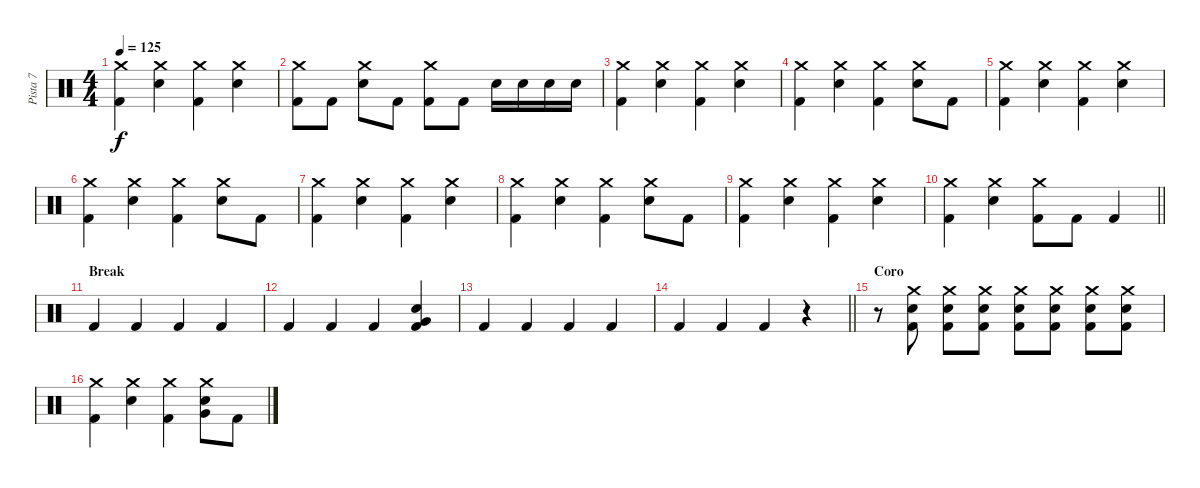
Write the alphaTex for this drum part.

\track ("Pista 7" "Pista 7") {instrument percussion}
\staff {score}
\articulation defaults
\ts (4 4)
\tempo 125
\clef neutral
\ks c
("Crash medium (hit)" "Kick (hit) 2").4{dy f} ("Crash medium (hit)" "Electric Snare (hit)").4 ("Crash medium (hit)" "Kick (hit) 2").4 ("Crash medium (hit)" "Electric Snare (hit)").4 |
("Crash medium (hit)" "Kick (hit) 2").8 "Kick (hit) 2".8 ("Crash medium (hit)" "Electric Snare (hit)").8 "Kick (hit) 2".8 ("Crash medium (hit)" "Kick (hit) 2").8 "Kick (hit) 2".8 "Electric Snare (hit)".16 "Electric Snare (hit)".16 "Electric Snare (hit)".16 "Electric Snare (hit)".16 |
("Crash medium (hit)" "Kick (hit) 2").4 ("Crash medium (hit)" "Electric Snare (hit)").4 ("Crash medium (hit)" "Kick (hit) 2").4 ("Crash medium (hit)" "Electric Snare (hit)").4 |
("Crash medium (hit)" "Kick (hit) 2").4 ("Crash medium (hit)" "Electric Snare (hit)").4 ("Crash medium (hit)" "Kick (hit) 2").4 ("Crash medium (hit)" "Electric Snare (hit)").8 "Kick (hit) 2".8 |
("Crash medium (hit)" "Kick (hit) 2").4 ("Crash medium (hit)" "Electric Snare (hit)").4 ("Crash medium (hit)" "Kick (hit) 2").4 ("Crash medium (hit)" "Electric Snare (hit)").4 |
("Crash medium (hit)" "Kick (hit) 2").4 ("Crash medium (hit)" "Electric Snare (hit)").4 ("Crash medium (hit)" "Kick (hit) 2").4 ("Crash medium (hit)" "Electric Snare (hit)").8 "Kick (hit) 2".8 |
("Crash medium (hit)" "Kick (hit) 2").4 ("Crash medium (hit)" "Electric Snare (hit)").4 ("Crash medium (hit)" "Kick (hit) 2").4 ("Crash medium (hit)" "Electric Snare (hit)").4 |
("Crash medium (hit)" "Kick (hit) 2").4 ("Crash medium (hit)" "Electric Snare (hit)").4 ("Crash medium (hit)" "Kick (hit) 2").4 ("Crash medium (hit)" "Electric Snare (hit)").8 "Kick (hit) 2".8 |
("Crash medium (hit)" "Kick (hit) 2").4 ("Crash medium (hit)" "Electric Snare (hit)").4 ("Crash medium (hit)" "Kick (hit) 2").4 ("Crash medium (hit)" "Electric Snare (hit)").4 |
\barLineRight lightlight
("Crash medium (hit)" "Kick (hit) 2").4 ("Crash medium (hit)" "Electric Snare (hit)").4 ("Crash medium (hit)" "Kick (hit) 2").8 "Kick (hit) 2".8 "Kick (hit) 2".4 |
\section ("" "Break")
"Kick (hit) 2".4 "Kick (hit) 2".4 "Kick (hit) 2".4 "Kick (hit) 2".4 |
"Kick (hit) 2".4 "Kick (hit) 2".4 "Kick (hit) 2".4 ("Very Low Tom (hit)" "Electric Snare (hit)" "Kick (hit) 2").4 |
"Kick (hit) 2".4 "Kick (hit) 2".4 "Kick (hit) 2".4 "Kick (hit) 2".4 |
\barLineRight lightlight "Kick (hit) 2".4 "Kick (hit) 2".4 "Kick (hit) 2".4
r.4 |
\section ("" "Coro")
r.8 ("Crash medium (hit)" "Electric Snare (hit)" "Kick (hit) 2").8 ("Crash medium (hit)" "Electric Snare (hit)" "Kick (hit) 2").8 ("Crash medium (hit)" "Electric Snare (hit)" "Kick (hit) 2").8 ("Crash medium (hit)" "Electric Snare (hit)" "Kick (hit) 2").8 ("Crash medium (hit)" "Electric Snare (hit)" "Kick (hit) 2").8 ("Crash medium (hit)" "Electric Snare (hit)" "Kick (hit) 2").8 ("Crash medium (hit)" "Electric Snare (hit)" "Kick (hit) 2").8 |
("Crash medium (hit)" "Kick (hit) 2").4 ("Crash medium (hit)" "Electric Snare (hit)").4 ("Crash medium (hit)" "Kick (hit) 2").4 ("Crash medium (hit)" "Very Low Tom (hit)" "Electric Snare (hit)").8 "Kick (hit) 2".8
